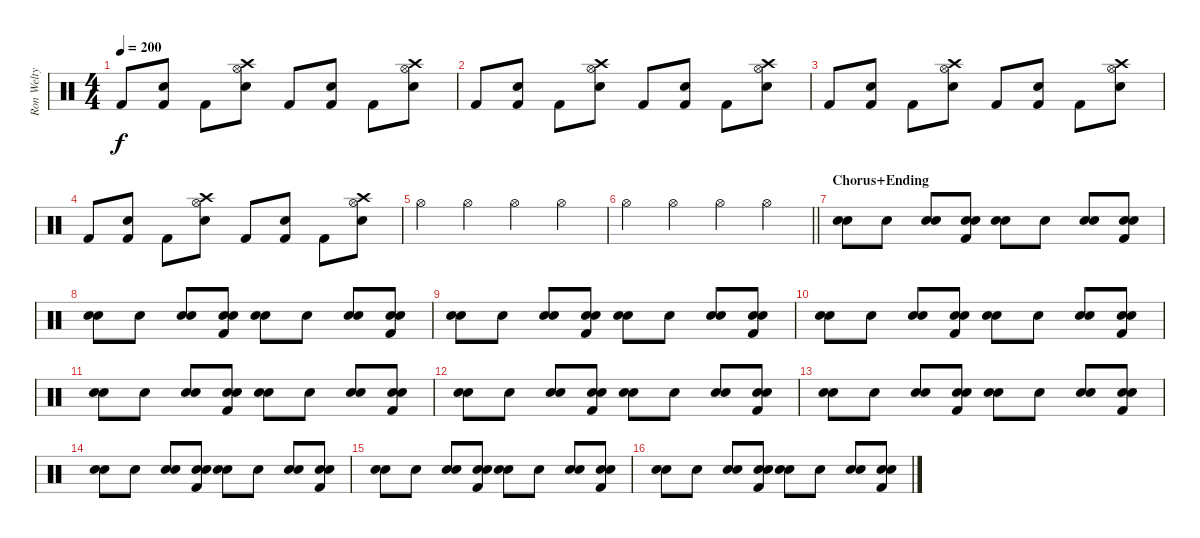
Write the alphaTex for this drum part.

\track ("Ron Welty" "Ron Welty") {instrument percussion}
\staff {score}
\articulation defaults
\ts (4 4)
\tempo 200
\clef neutral
\ks c "Kick (hit) 2".8{dy f}
("Kick (hit) 2" "Electric Snare (hit)").8 "Kick (hit) 2".8 ("Snare (hit) 2" "Hi-Hat (open)" "Crash high (hit)").8 "Kick (hit) 2".8 ("Kick (hit) 2" "Electric Snare (hit)").8 "Kick (hit) 2".8 ("Snare (hit) 2" "Hi-Hat (open)" "Crash high (hit)").8 |
"Kick (hit) 2".8 ("Kick (hit) 2" "Electric Snare (hit)").8 "Kick (hit) 2".8 ("Snare (hit) 2" "Hi-Hat (open)" "Crash high (hit)").8 "Kick (hit) 2".8 ("Kick (hit) 2" "Electric Snare (hit)").8 "Kick (hit) 2".8 ("Snare (hit) 2" "Hi-Hat (open)" "Crash high (hit)").8 |
"Kick (hit) 2".8 ("Kick (hit) 2" "Electric Snare (hit)").8 "Kick (hit) 2".8 ("Snare (hit) 2" "Hi-Hat (open)" "Crash high (hit)").8 "Kick (hit) 2".8 ("Kick (hit) 2" "Electric Snare (hit)").8 "Kick (hit) 2".8 ("Snare (hit) 2" "Hi-Hat (open)" "Crash high (hit)").8 |
"Kick (hit) 2".8 ("Kick (hit) 2" "Electric Snare (hit)").8 "Kick (hit) 2".8 ("Snare (hit) 2" "Hi-Hat (open)" "Crash high (hit)").8 "Kick (hit) 2".8 ("Kick (hit) 2" "Electric Snare (hit)").8 "Kick (hit) 2".8 ("Snare (hit) 2" "Hi-Hat (open)" "Crash high (hit)").8 |
"Hi-Hat (open)".4 "Hi-Hat (open)".4 "Hi-Hat (open)".4 "Hi-Hat (open)".4 |
\barLineRight lightlight "Hi-Hat (open)".4 "Hi-Hat (open)".4 "Hi-Hat (open)".4 "Hi-Hat (open)".4
|
\section ("" "Chorus+Ending")
("Electric Snare (hit)" "Snare (hit) 2").8 "Electric Snare (hit)".8 ("Electric Snare (hit)" "Snare (hit) 2").8 ("Kick (hit) 2" "Snare (hit) 2" "Electric Snare (hit)").8 ("Electric Snare (hit)" "Snare (hit) 2").8 "Electric Snare (hit)".8 ("Electric Snare (hit)" "Snare (hit) 2").8 ("Kick (hit) 2" "Snare (hit) 2" "Electric Snare (hit)").8 |
("Electric Snare (hit)" "Snare (hit) 2").8 "Electric Snare (hit)".8 ("Electric Snare (hit)" "Snare (hit) 2").8 ("Kick (hit) 2" "Snare (hit) 2" "Electric Snare (hit)").8 ("Electric Snare (hit)" "Snare (hit) 2").8 "Electric Snare (hit)".8 ("Electric Snare (hit)" "Snare (hit) 2").8 ("Kick (hit) 2" "Snare (hit) 2" "Electric Snare (hit)").8 |
("Electric Snare (hit)" "Snare (hit) 2").8 "Electric Snare (hit)".8 ("Electric Snare (hit)" "Snare (hit) 2").8 ("Kick (hit) 2" "Snare (hit) 2" "Electric Snare (hit)").8 ("Electric Snare (hit)" "Snare (hit) 2").8 "Electric Snare (hit)".8 ("Electric Snare (hit)" "Snare (hit) 2").8 ("Kick (hit) 2" "Snare (hit) 2" "Electric Snare (hit)").8 |
("Electric Snare (hit)" "Snare (hit) 2").8 "Electric Snare (hit)".8 ("Electric Snare (hit)" "Snare (hit) 2").8 ("Kick (hit) 2" "Snare (hit) 2" "Electric Snare (hit)").8 ("Electric Snare (hit)" "Snare (hit) 2").8 "Electric Snare (hit)".8 ("Electric Snare (hit)" "Snare (hit) 2").8 ("Kick (hit) 2" "Snare (hit) 2" "Electric Snare (hit)").8 |
("Electric Snare (hit)" "Snare (hit) 2").8 "Electric Snare (hit)".8 ("Electric Snare (hit)" "Snare (hit) 2").8 ("Kick (hit) 2" "Snare (hit) 2" "Electric Snare (hit)").8 ("Electric Snare (hit)" "Snare (hit) 2").8 "Electric Snare (hit)".8 ("Electric Snare (hit)" "Snare (hit) 2").8 ("Kick (hit) 2" "Snare (hit) 2" "Electric Snare (hit)").8 |
("Electric Snare (hit)" "Snare (hit) 2").8 "Electric Snare (hit)".8 ("Electric Snare (hit)" "Snare (hit) 2").8 ("Kick (hit) 2" "Snare (hit) 2" "Electric Snare (hit)").8 ("Electric Snare (hit)" "Snare (hit) 2").8 "Electric Snare (hit)".8 ("Electric Snare (hit)" "Snare (hit) 2").8 ("Kick (hit) 2" "Snare (hit) 2" "Electric Snare (hit)").8 |
("Electric Snare (hit)" "Snare (hit) 2").8 "Electric Snare (hit)".8 ("Electric Snare (hit)" "Snare (hit) 2").8 ("Kick (hit) 2" "Snare (hit) 2" "Electric Snare (hit)").8 ("Electric Snare (hit)" "Snare (hit) 2").8 "Electric Snare (hit)".8 ("Electric Snare (hit)" "Snare (hit) 2").8 ("Kick (hit) 2" "Snare (hit) 2" "Electric Snare (hit)").8 |
("Electric Snare (hit)" "Snare (hit) 2").8 "Electric Snare (hit)".8 ("Electric Snare (hit)" "Snare (hit) 2").8 ("Kick (hit) 2" "Snare (hit) 2" "Electric Snare (hit)").8 ("Electric Snare (hit)" "Snare (hit) 2").8 "Electric Snare (hit)".8 ("Electric Snare (hit)" "Snare (hit) 2").8 ("Kick (hit) 2" "Snare (hit) 2" "Electric Snare (hit)").8 |
("Electric Snare (hit)" "Snare (hit) 2").8 "Electric Snare (hit)".8 ("Electric Snare (hit)" "Snare (hit) 2").8 ("Kick (hit) 2" "Snare (hit) 2" "Electric Snare (hit)").8 ("Electric Snare (hit)" "Snare (hit) 2").8 "Electric Snare (hit)".8 ("Electric Snare (hit)" "Snare (hit) 2").8 ("Kick (hit) 2" "Snare (hit) 2" "Electric Snare (hit)").8 |
("Electric Snare (hit)" "Snare (hit) 2").8 "Electric Snare (hit)".8 ("Electric Snare (hit)" "Snare (hit) 2").8 ("Kick (hit) 2" "Snare (hit) 2" "Electric Snare (hit)").8 ("Electric Snare (hit)" "Snare (hit) 2").8 "Electric Snare (hit)".8 ("Electric Snare (hit)" "Snare (hit) 2").8 ("Kick (hit) 2" "Snare (hit) 2" "Electric Snare (hit)").8
